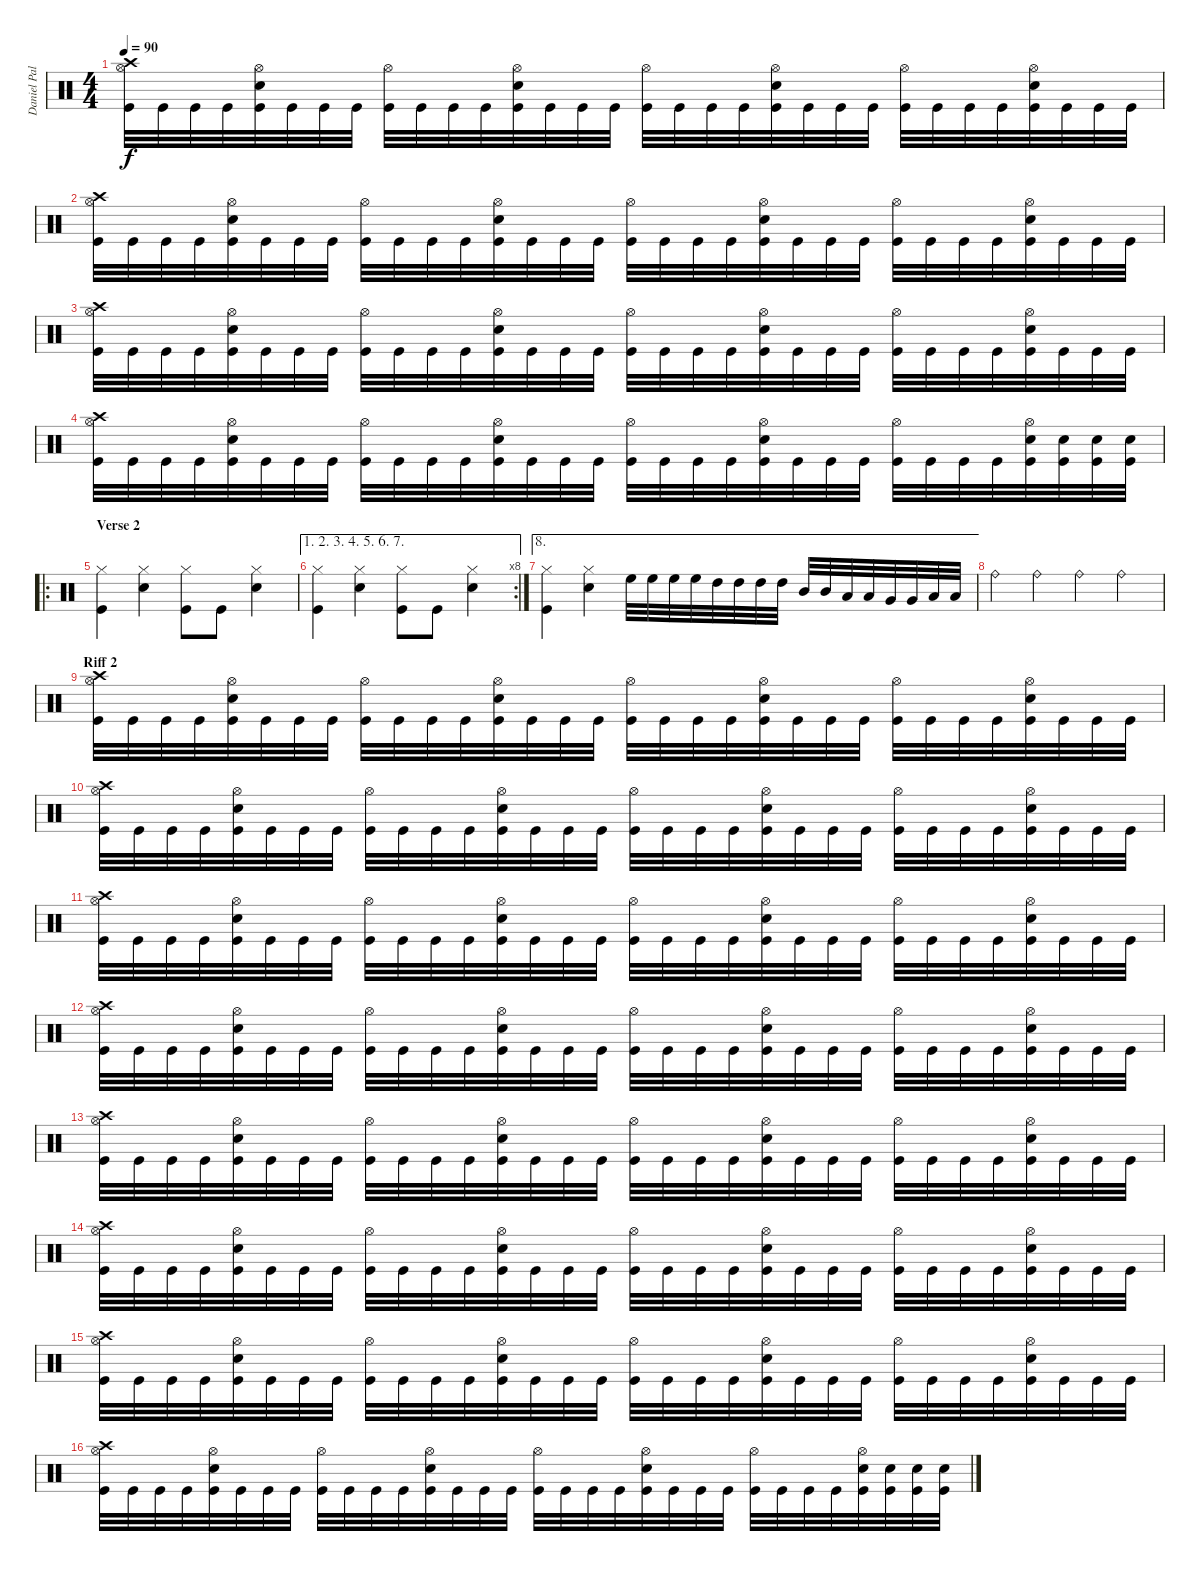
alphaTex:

\track ("Daniel Pal" "Daniel Pal") {instrument percussion}
\staff {score}
\articulation defaults
\ts (4 4)
\tempo 90
\clef neutral
\ks c
("Crash high (hit)" "Hi-Hat (open)" "Kick (hit)").32{dy f} "Kick (hit)".32 "Kick (hit)".32 "Kick (hit)".32 ("Hi-Hat (open)" "Electric Snare (hit)" "Kick (hit)").32 "Kick (hit)".32 "Kick (hit)".32 "Kick (hit)".32 ("Hi-Hat (open)" "Kick (hit)").32 "Kick (hit)".32 "Kick (hit)".32 "Kick (hit)".32 ("Hi-Hat (open)" "Electric Snare (hit)" "Kick (hit)").32 "Kick (hit)".32 "Kick (hit)".32 "Kick (hit)".32 ("Hi-Hat (open)" "Kick (hit)").32 "Kick (hit)".32 "Kick (hit)".32 "Kick (hit)".32 ("Hi-Hat (open)" "Electric Snare (hit)" "Kick (hit)").32 "Kick (hit)".32 "Kick (hit)".32 "Kick (hit)".32 ("Hi-Hat (open)" "Kick (hit)").32 "Kick (hit)".32 "Kick (hit)".32 "Kick (hit)".32 ("Hi-Hat (open)" "Electric Snare (hit)" "Kick (hit)").32 "Kick (hit)".32 "Kick (hit)".32 "Kick (hit)".32 |
("Crash high (hit)" "Hi-Hat (open)" "Kick (hit)").32 "Kick (hit)".32 "Kick (hit)".32 "Kick (hit)".32 ("Hi-Hat (open)" "Electric Snare (hit)" "Kick (hit)").32 "Kick (hit)".32 "Kick (hit)".32 "Kick (hit)".32 ("Hi-Hat (open)" "Kick (hit)").32 "Kick (hit)".32 "Kick (hit)".32 "Kick (hit)".32 ("Hi-Hat (open)" "Electric Snare (hit)" "Kick (hit)").32 "Kick (hit)".32 "Kick (hit)".32 "Kick (hit)".32 ("Hi-Hat (open)" "Kick (hit)").32 "Kick (hit)".32 "Kick (hit)".32 "Kick (hit)".32 ("Hi-Hat (open)" "Electric Snare (hit)" "Kick (hit)").32 "Kick (hit)".32 "Kick (hit)".32 "Kick (hit)".32 ("Hi-Hat (open)" "Kick (hit)").32 "Kick (hit)".32 "Kick (hit)".32 "Kick (hit)".32 ("Hi-Hat (open)" "Electric Snare (hit)" "Kick (hit)").32 "Kick (hit)".32 "Kick (hit)".32 "Kick (hit)".32 |
("Crash high (hit)" "Hi-Hat (open)" "Kick (hit)").32 "Kick (hit)".32 "Kick (hit)".32 "Kick (hit)".32 ("Hi-Hat (open)" "Electric Snare (hit)" "Kick (hit)").32 "Kick (hit)".32 "Kick (hit)".32 "Kick (hit)".32 ("Hi-Hat (open)" "Kick (hit)").32 "Kick (hit)".32 "Kick (hit)".32 "Kick (hit)".32 ("Hi-Hat (open)" "Electric Snare (hit)" "Kick (hit)").32 "Kick (hit)".32 "Kick (hit)".32 "Kick (hit)".32 ("Hi-Hat (open)" "Kick (hit)").32 "Kick (hit)".32 "Kick (hit)".32 "Kick (hit)".32 ("Hi-Hat (open)" "Electric Snare (hit)" "Kick (hit)").32 "Kick (hit)".32 "Kick (hit)".32 "Kick (hit)".32 ("Hi-Hat (open)" "Kick (hit)").32 "Kick (hit)".32 "Kick (hit)".32 "Kick (hit)".32 ("Hi-Hat (open)" "Electric Snare (hit)" "Kick (hit)").32 "Kick (hit)".32 "Kick (hit)".32 "Kick (hit)".32 |
("Crash high (hit)" "Hi-Hat (open)" "Kick (hit)").32 "Kick (hit)".32 "Kick (hit)".32 "Kick (hit)".32 ("Hi-Hat (open)" "Electric Snare (hit)" "Kick (hit)").32 "Kick (hit)".32 "Kick (hit)".32 "Kick (hit)".32 ("Hi-Hat (open)" "Kick (hit)").32 "Kick (hit)".32 "Kick (hit)".32 "Kick (hit)".32 ("Hi-Hat (open)" "Electric Snare (hit)" "Kick (hit)").32 "Kick (hit)".32 "Kick (hit)".32 "Kick (hit)".32 ("Hi-Hat (open)" "Kick (hit)").32 "Kick (hit)".32 "Kick (hit)".32 "Kick (hit)".32 ("Hi-Hat (open)" "Electric Snare (hit)" "Kick (hit)").32 "Kick (hit)".32 "Kick (hit)".32 "Kick (hit)".32 ("Hi-Hat (open)" "Kick (hit)").32 "Kick (hit)".32 "Kick (hit)".32 "Kick (hit)".32 ("Hi-Hat (open)" "Electric Snare (hit)" "Kick (hit)").32 ("Electric Snare (hit)" "Kick (hit)").32 ("Electric Snare (hit)" "Kick (hit)").32 ("Electric Snare (hit)" "Kick (hit)").32 |
\ro
\section ("" "Verse 2")
("Hi-Hat (closed)" "Kick (hit)").4 ("Hi-Hat (closed)" "Electric Snare (hit)").4 ("Hi-Hat (closed)" "Kick (hit)").8 "Kick (hit)".8 ("Hi-Hat (closed)" "Electric Snare (hit)").4 |
\ae (1 2 3 4 5 6 7)
\rc 8
("Hi-Hat (closed)" "Kick (hit)").4 ("Hi-Hat (closed)" "Electric Snare (hit)").4 ("Hi-Hat (closed)" "Kick (hit)").8 "Kick (hit)".8 ("Hi-Hat (closed)" "Electric Snare (hit)").4 |
\ae 8
("Hi-Hat (closed)" "Kick (hit)").4 ("Hi-Hat (closed)" "Electric Snare (hit)").4 "High Floor Tom (hit)".32 "High Floor Tom (hit)".32 "High Floor Tom (hit)".32 "High Floor Tom (hit)".32 "High Tom (hit)".32 "High Tom (hit)".32 "High Tom (hit)".32 "High Tom (hit)".32 "Mid Tom (hit)".32 "Mid Tom (hit)".32 "Low Tom (hit)".32 "Low Tom (hit)".32 "Very Low Tom (hit)".32 "Very Low Tom (hit)".32 "Low Floor Tom (hit)".32 "Low Floor Tom (hit)".32 |
"Ride (bell)".4 "Ride (bell)".4 "Ride (bell)".4 "Ride (bell)".4 |
\section ("" "Riff 2")
("Crash high (hit)" "Hi-Hat (open)" "Kick (hit)").32 "Kick (hit)".32 "Kick (hit)".32 "Kick (hit)".32 ("Hi-Hat (open)" "Electric Snare (hit)" "Kick (hit)").32 "Kick (hit)".32 "Kick (hit)".32 "Kick (hit)".32 ("Hi-Hat (open)" "Kick (hit)").32 "Kick (hit)".32 "Kick (hit)".32 "Kick (hit)".32 ("Hi-Hat (open)" "Electric Snare (hit)" "Kick (hit)").32 "Kick (hit)".32 "Kick (hit)".32 "Kick (hit)".32 ("Hi-Hat (open)" "Kick (hit)").32 "Kick (hit)".32 "Kick (hit)".32 "Kick (hit)".32 ("Hi-Hat (open)" "Electric Snare (hit)" "Kick (hit)").32 "Kick (hit)".32 "Kick (hit)".32 "Kick (hit)".32 ("Hi-Hat (open)" "Kick (hit)").32 "Kick (hit)".32 "Kick (hit)".32 "Kick (hit)".32 ("Hi-Hat (open)" "Electric Snare (hit)" "Kick (hit)").32 "Kick (hit)".32 "Kick (hit)".32 "Kick (hit)".32 |
("Crash high (hit)" "Hi-Hat (open)" "Kick (hit)").32 "Kick (hit)".32 "Kick (hit)".32 "Kick (hit)".32 ("Hi-Hat (open)" "Electric Snare (hit)" "Kick (hit)").32 "Kick (hit)".32 "Kick (hit)".32 "Kick (hit)".32 ("Hi-Hat (open)" "Kick (hit)").32 "Kick (hit)".32 "Kick (hit)".32 "Kick (hit)".32 ("Hi-Hat (open)" "Electric Snare (hit)" "Kick (hit)").32 "Kick (hit)".32 "Kick (hit)".32 "Kick (hit)".32 ("Hi-Hat (open)" "Kick (hit)").32 "Kick (hit)".32 "Kick (hit)".32 "Kick (hit)".32 ("Hi-Hat (open)" "Electric Snare (hit)" "Kick (hit)").32 "Kick (hit)".32 "Kick (hit)".32 "Kick (hit)".32 ("Hi-Hat (open)" "Kick (hit)").32 "Kick (hit)".32 "Kick (hit)".32 "Kick (hit)".32 ("Hi-Hat (open)" "Electric Snare (hit)" "Kick (hit)").32 "Kick (hit)".32 "Kick (hit)".32 "Kick (hit)".32 |
("Crash high (hit)" "Hi-Hat (open)" "Kick (hit)").32 "Kick (hit)".32 "Kick (hit)".32 "Kick (hit)".32 ("Hi-Hat (open)" "Electric Snare (hit)" "Kick (hit)").32 "Kick (hit)".32 "Kick (hit)".32 "Kick (hit)".32 ("Hi-Hat (open)" "Kick (hit)").32 "Kick (hit)".32 "Kick (hit)".32 "Kick (hit)".32 ("Hi-Hat (open)" "Electric Snare (hit)" "Kick (hit)").32 "Kick (hit)".32 "Kick (hit)".32 "Kick (hit)".32 ("Hi-Hat (open)" "Kick (hit)").32 "Kick (hit)".32 "Kick (hit)".32 "Kick (hit)".32 ("Hi-Hat (open)" "Electric Snare (hit)" "Kick (hit)").32 "Kick (hit)".32 "Kick (hit)".32 "Kick (hit)".32 ("Hi-Hat (open)" "Kick (hit)").32 "Kick (hit)".32 "Kick (hit)".32 "Kick (hit)".32 ("Hi-Hat (open)" "Electric Snare (hit)" "Kick (hit)").32 "Kick (hit)".32 "Kick (hit)".32 "Kick (hit)".32 |
("Crash high (hit)" "Hi-Hat (open)" "Kick (hit)").32 "Kick (hit)".32 "Kick (hit)".32 "Kick (hit)".32 ("Hi-Hat (open)" "Electric Snare (hit)" "Kick (hit)").32 "Kick (hit)".32 "Kick (hit)".32 "Kick (hit)".32 ("Hi-Hat (open)" "Kick (hit)").32 "Kick (hit)".32 "Kick (hit)".32 "Kick (hit)".32 ("Hi-Hat (open)" "Electric Snare (hit)" "Kick (hit)").32 "Kick (hit)".32 "Kick (hit)".32 "Kick (hit)".32 ("Hi-Hat (open)" "Kick (hit)").32 "Kick (hit)".32 "Kick (hit)".32 "Kick (hit)".32 ("Hi-Hat (open)" "Electric Snare (hit)" "Kick (hit)").32 "Kick (hit)".32 "Kick (hit)".32 "Kick (hit)".32 ("Hi-Hat (open)" "Kick (hit)").32 "Kick (hit)".32 "Kick (hit)".32 "Kick (hit)".32 ("Hi-Hat (open)" "Electric Snare (hit)" "Kick (hit)").32 "Kick (hit)".32 "Kick (hit)".32 "Kick (hit)".32 |
("Crash high (hit)" "Hi-Hat (open)" "Kick (hit)").32 "Kick (hit)".32 "Kick (hit)".32 "Kick (hit)".32 ("Hi-Hat (open)" "Electric Snare (hit)" "Kick (hit)").32 "Kick (hit)".32 "Kick (hit)".32 "Kick (hit)".32 ("Hi-Hat (open)" "Kick (hit)").32 "Kick (hit)".32 "Kick (hit)".32 "Kick (hit)".32 ("Hi-Hat (open)" "Electric Snare (hit)" "Kick (hit)").32 "Kick (hit)".32 "Kick (hit)".32 "Kick (hit)".32 ("Hi-Hat (open)" "Kick (hit)").32 "Kick (hit)".32 "Kick (hit)".32 "Kick (hit)".32 ("Hi-Hat (open)" "Electric Snare (hit)" "Kick (hit)").32 "Kick (hit)".32 "Kick (hit)".32 "Kick (hit)".32 ("Hi-Hat (open)" "Kick (hit)").32 "Kick (hit)".32 "Kick (hit)".32 "Kick (hit)".32 ("Hi-Hat (open)" "Electric Snare (hit)" "Kick (hit)").32 "Kick (hit)".32 "Kick (hit)".32 "Kick (hit)".32 |
("Crash high (hit)" "Hi-Hat (open)" "Kick (hit)").32 "Kick (hit)".32 "Kick (hit)".32 "Kick (hit)".32 ("Hi-Hat (open)" "Electric Snare (hit)" "Kick (hit)").32 "Kick (hit)".32 "Kick (hit)".32 "Kick (hit)".32 ("Hi-Hat (open)" "Kick (hit)").32 "Kick (hit)".32 "Kick (hit)".32 "Kick (hit)".32 ("Hi-Hat (open)" "Electric Snare (hit)" "Kick (hit)").32 "Kick (hit)".32 "Kick (hit)".32 "Kick (hit)".32 ("Hi-Hat (open)" "Kick (hit)").32 "Kick (hit)".32 "Kick (hit)".32 "Kick (hit)".32 ("Hi-Hat (open)" "Electric Snare (hit)" "Kick (hit)").32 "Kick (hit)".32 "Kick (hit)".32 "Kick (hit)".32 ("Hi-Hat (open)" "Kick (hit)").32 "Kick (hit)".32 "Kick (hit)".32 "Kick (hit)".32 ("Hi-Hat (open)" "Electric Snare (hit)" "Kick (hit)").32 "Kick (hit)".32 "Kick (hit)".32 "Kick (hit)".32 |
("Crash high (hit)" "Hi-Hat (open)" "Kick (hit)").32 "Kick (hit)".32 "Kick (hit)".32 "Kick (hit)".32 ("Hi-Hat (open)" "Electric Snare (hit)" "Kick (hit)").32 "Kick (hit)".32 "Kick (hit)".32 "Kick (hit)".32 ("Hi-Hat (open)" "Kick (hit)").32 "Kick (hit)".32 "Kick (hit)".32 "Kick (hit)".32 ("Hi-Hat (open)" "Electric Snare (hit)" "Kick (hit)").32 "Kick (hit)".32 "Kick (hit)".32 "Kick (hit)".32 ("Hi-Hat (open)" "Kick (hit)").32 "Kick (hit)".32 "Kick (hit)".32 "Kick (hit)".32 ("Hi-Hat (open)" "Electric Snare (hit)" "Kick (hit)").32 "Kick (hit)".32 "Kick (hit)".32 "Kick (hit)".32 ("Hi-Hat (open)" "Kick (hit)").32 "Kick (hit)".32 "Kick (hit)".32 "Kick (hit)".32 ("Hi-Hat (open)" "Electric Snare (hit)" "Kick (hit)").32 "Kick (hit)".32 "Kick (hit)".32 "Kick (hit)".32 |
("Crash high (hit)" "Hi-Hat (open)" "Kick (hit)").32 "Kick (hit)".32 "Kick (hit)".32 "Kick (hit)".32 ("Hi-Hat (open)" "Electric Snare (hit)" "Kick (hit)").32 "Kick (hit)".32 "Kick (hit)".32 "Kick (hit)".32 ("Hi-Hat (open)" "Kick (hit)").32 "Kick (hit)".32 "Kick (hit)".32 "Kick (hit)".32 ("Hi-Hat (open)" "Electric Snare (hit)" "Kick (hit)").32 "Kick (hit)".32 "Kick (hit)".32 "Kick (hit)".32 ("Hi-Hat (open)" "Kick (hit)").32 "Kick (hit)".32 "Kick (hit)".32 "Kick (hit)".32 ("Hi-Hat (open)" "Electric Snare (hit)" "Kick (hit)").32 "Kick (hit)".32 "Kick (hit)".32 "Kick (hit)".32 ("Hi-Hat (open)" "Kick (hit)").32 "Kick (hit)".32 "Kick (hit)".32 "Kick (hit)".32 ("Hi-Hat (open)" "Electric Snare (hit)" "Kick (hit)").32 ("Electric Snare (hit)" "Kick (hit)").32 ("Electric Snare (hit)" "Kick (hit)").32 ("Electric Snare (hit)" "Kick (hit)").32
